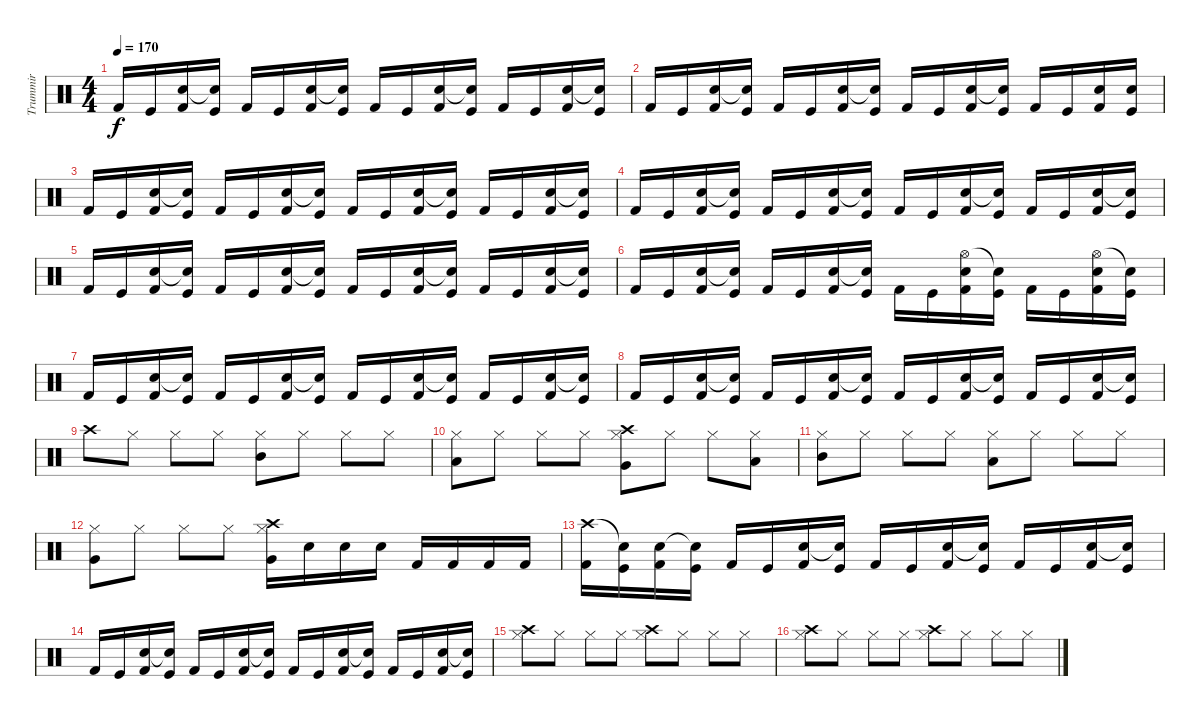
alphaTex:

\track ("Trummir" "Trummir") {instrument percussion}
\staff {score}
\articulation defaults
\ts (4 4)
\tempo 170
\clef neutral
\ks c "Kick (hit) 2".16{dy f} "Kick (hit)".16
("Snare (hit) 2" "Kick (hit) 2").16 ("Snare (hit)"{t} "Kick (hit)").16 "Kick (hit) 2".16 "Kick (hit)".16 ("Snare (hit) 2" "Kick (hit) 2").16 ("Snare (hit)"{t} "Kick (hit)").16 "Kick (hit) 2".16 "Kick (hit)".16 ("Snare (hit) 2" "Kick (hit) 2").16 ("Snare (hit)"{t} "Kick (hit)").16 "Kick (hit) 2".16 "Kick (hit)".16 ("Snare (hit) 2" "Kick (hit) 2").16 ("Snare (hit) 2"{t} "Kick (hit)").16 |
"Kick (hit) 2".16 "Kick (hit)".16 ("Snare (hit) 2" "Kick (hit) 2").16 ("Snare (hit)"{t} "Kick (hit)").16 "Kick (hit) 2".16 "Kick (hit)".16 ("Snare (hit) 2" "Kick (hit) 2").16 ("Snare (hit)"{t} "Kick (hit)").16 "Kick (hit) 2".16 "Kick (hit)".16 ("Snare (hit) 2" "Kick (hit) 2").16 ("Snare (hit)"{t} "Kick (hit)").16 "Kick (hit) 2".16 "Kick (hit)".16 ("Snare (hit) 2" "Kick (hit) 2").16 ("Snare (hit) 2" "Kick (hit)").16 |
"Kick (hit) 2".16 "Kick (hit)".16 ("Snare (hit) 2" "Kick (hit) 2").16 ("Snare (hit)"{t} "Kick (hit)").16 "Kick (hit) 2".16 "Kick (hit)".16 ("Snare (hit) 2" "Kick (hit) 2").16 ("Snare (hit)"{t} "Kick (hit)").16 "Kick (hit) 2".16 "Kick (hit)".16 ("Snare (hit) 2" "Kick (hit) 2").16 ("Snare (hit)"{t} "Kick (hit)").16 "Kick (hit) 2".16 "Kick (hit)".16 ("Snare (hit) 2" "Kick (hit) 2").16 ("Snare (hit) 2"{t} "Kick (hit)").16 |
"Kick (hit) 2".16 "Kick (hit)".16 ("Snare (hit) 2" "Kick (hit) 2").16 ("Snare (hit)"{t} "Kick (hit)").16 "Kick (hit) 2".16 "Kick (hit)".16 ("Snare (hit) 2" "Kick (hit) 2").16 ("Snare (hit)"{t} "Kick (hit)").16 "Kick (hit) 2".16 "Kick (hit)".16 ("Snare (hit) 2" "Kick (hit) 2").16 ("Snare (hit)"{t} "Kick (hit)").16 "Kick (hit) 2".16 "Kick (hit)".16 ("Snare (hit) 2" "Kick (hit) 2").16 ("Snare (hit) 2"{t} "Kick (hit)").16 |
"Kick (hit) 2".16 "Kick (hit)".16 ("Snare (hit) 2" "Kick (hit) 2").16 ("Snare (hit)"{t} "Kick (hit)").16 "Kick (hit) 2".16 "Kick (hit)".16 ("Snare (hit) 2" "Kick (hit) 2").16 ("Snare (hit)"{t} "Kick (hit)").16 "Kick (hit) 2".16 "Kick (hit)".16 ("Snare (hit) 2" "Kick (hit) 2").16 ("Snare (hit)"{t} "Kick (hit)").16 "Kick (hit) 2".16 "Kick (hit)".16 ("Snare (hit) 2" "Kick (hit) 2").16 ("Snare (hit) 2"{t} "Kick (hit)").16 |
"Kick (hit) 2".16 "Kick (hit)".16 ("Snare (hit) 2" "Kick (hit) 2").16 ("Snare (hit)"{t} "Kick (hit)").16 "Kick (hit) 2".16 "Kick (hit)".16 ("Snare (hit) 2" "Kick (hit) 2").16 ("Snare (hit)"{t} "Kick (hit)").16 "Kick (hit) 2".16 "Kick (hit)".16 ("Hi-Hat (open)" "Snare (hit) 2" "Kick (hit) 2").16 ("Snare (hit)"{t} "Kick (hit)").16 "Kick (hit) 2".16 "Kick (hit)".16 ("Hi-Hat (open)" "Snare (hit) 2" "Kick (hit) 2").16 ("Snare (hit) 2"{t} "Kick (hit)").16 |
"Kick (hit) 2".16 "Kick (hit)".16 ("Snare (hit) 2" "Kick (hit) 2").16 ("Snare (hit)"{t} "Kick (hit)").16 "Kick (hit) 2".16 "Kick (hit)".16 ("Snare (hit) 2" "Kick (hit) 2").16 ("Snare (hit)"{t} "Kick (hit)").16 "Kick (hit) 2".16 "Kick (hit)".16 ("Snare (hit) 2" "Kick (hit) 2").16 ("Snare (hit)"{t} "Kick (hit)").16 "Kick (hit) 2".16 "Kick (hit)".16 ("Snare (hit) 2" "Kick (hit) 2").16 ("Snare (hit) 2"{t} "Kick (hit)").16 |
"Kick (hit) 2".16 "Kick (hit)".16 ("Snare (hit) 2" "Kick (hit) 2").16 ("Snare (hit)"{t} "Kick (hit)").16 "Kick (hit) 2".16 "Kick (hit)".16 ("Snare (hit) 2" "Kick (hit) 2").16 ("Snare (hit)"{t} "Kick (hit)").16 "Kick (hit) 2".16 "Kick (hit)".16 ("Snare (hit) 2" "Kick (hit) 2").16 ("Snare (hit)"{t} "Kick (hit)").16 "Kick (hit) 2".16 "Kick (hit)".16 ("Snare (hit) 2" "Kick (hit) 2").16 ("Snare (hit) 2"{t} "Kick (hit)").16 |
"Crash high (hit)".8 "Hi-Hat (closed)".8 "Hi-Hat (closed)".8 "Hi-Hat (closed)".8 ("Hi-Hat (closed)" "Mid Tom (hit)").8 "Hi-Hat (closed)".8 "Hi-Hat (closed)".8 "Hi-Hat (closed)".8 |
("Hi-Hat (closed)" "Low Tom (hit)").8 "Hi-Hat (closed)".8 "Hi-Hat (closed)".8 "Hi-Hat (closed)".8 ("Hi-Hat (closed)" "Crash high (hit)" "Very Low Tom (hit)").8 "Hi-Hat (closed)".8 "Hi-Hat (closed)".8 ("Hi-Hat (closed)" "Low Tom (hit)").8 |
("Hi-Hat (closed)" "Mid Tom (hit)").8 "Hi-Hat (closed)".8 "Hi-Hat (closed)".8 "Hi-Hat (closed)".8 ("Hi-Hat (closed)" "Low Tom (hit)").8 "Hi-Hat (closed)".8 "Hi-Hat (closed)".8 "Hi-Hat (closed)".8 |
("Hi-Hat (closed)" "Very Low Tom (hit)").8 "Hi-Hat (closed)".8 "Hi-Hat (closed)".8 "Hi-Hat (closed)".8 ("Hi-Hat (closed)" "Crash high (hit)" "Very Low Tom (hit)").16 "Snare (hit) 2".16 "Snare (hit) 2".16 "Snare (hit) 2".16 "Kick (hit) 2".16 "Kick (hit) 2".16 "Kick (hit) 2".16 "Kick (hit) 2".16 |
("Crash high (hit)" "Kick (hit) 2").16 ("Snare (hit)"{t} "Kick (hit)").16 ("Snare (hit) 2" "Kick (hit) 2").16 ("Snare (hit)"{t} "Kick (hit)").16 "Kick (hit) 2".16 "Kick (hit)".16 ("Snare (hit) 2" "Kick (hit) 2").16 ("Snare (hit)"{t} "Kick (hit)").16 "Kick (hit) 2".16 "Kick (hit)".16 ("Snare (hit) 2" "Kick (hit) 2").16 ("Snare (hit)"{t} "Kick (hit)").16 "Kick (hit) 2".16 "Kick (hit)".16 ("Snare (hit) 2" "Kick (hit) 2").16 ("Snare (hit) 2"{t} "Kick (hit)").16 |
"Kick (hit) 2".16 "Kick (hit)".16 ("Snare (hit) 2" "Kick (hit) 2").16 ("Snare (hit)"{t} "Kick (hit)").16 "Kick (hit) 2".16 "Kick (hit)".16 ("Snare (hit) 2" "Kick (hit) 2").16 ("Snare (hit)"{t} "Kick (hit)").16 "Kick (hit) 2".16 "Kick (hit)".16 ("Snare (hit) 2" "Kick (hit) 2").16 ("Snare (hit)"{t} "Kick (hit)").16 "Kick (hit) 2".16 "Kick (hit)".16 ("Snare (hit) 2" "Kick (hit) 2").16 ("Snare (hit) 2"{t} "Kick (hit)").16 |
("Hi-Hat (closed)" "Crash high (hit)").8 "Hi-Hat (closed)".8 "Hi-Hat (closed)".8 "Hi-Hat (closed)".8 ("Hi-Hat (closed)" "Crash high (hit)").8 "Hi-Hat (closed)".8 "Hi-Hat (closed)".8 "Hi-Hat (closed)".8 |
("Hi-Hat (closed)" "Crash high (hit)").8 "Hi-Hat (closed)".8 "Hi-Hat (closed)".8 "Hi-Hat (closed)".8 ("Hi-Hat (closed)" "Crash high (hit)").8 "Hi-Hat (closed)".8 "Hi-Hat (closed)".8 "Hi-Hat (closed)".8
